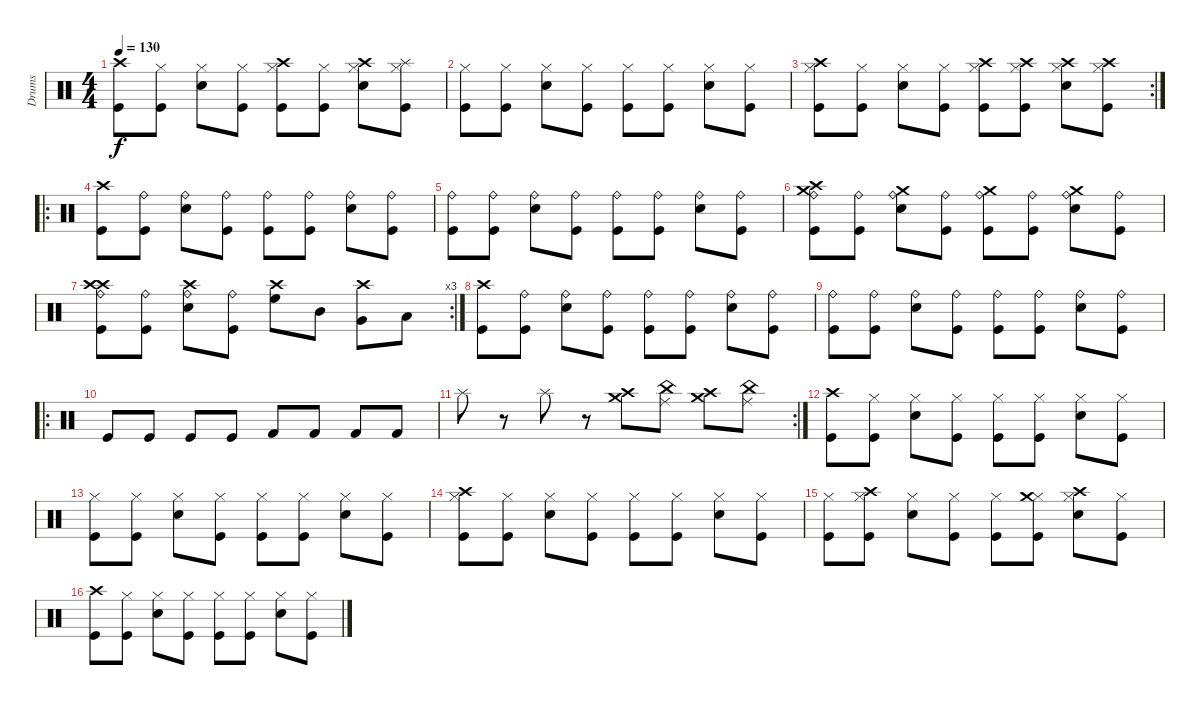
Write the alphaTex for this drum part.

\track ("Drums" "Drums") {instrument percussion}
\staff {score}
\articulation defaults
\ts (4 4)
\tempo 130
\clef neutral
\ks c
("Crash high (hit)" "Kick (hit)").8{dy f} ("Kick (hit)" "Hi-Hat (closed)").8 ("Electric Snare (hit)" "Hi-Hat (closed)").8 ("Kick (hit)" "Hi-Hat (closed)").8 ("Kick (hit)" "Hi-Hat (closed)" "Crash high (hit)").8 ("Kick (hit)" "Hi-Hat (closed)").8 ("Electric Snare (hit)" "Hi-Hat (closed)" "Crash high (hit)").8 ("Kick (hit)" "Hi-Hat (closed)" "Splash (hit)").8 |
("Kick (hit)" "Hi-Hat (closed)").8 ("Kick (hit)" "Hi-Hat (closed)").8 ("Electric Snare (hit)" "Hi-Hat (closed)").8 ("Kick (hit)" "Hi-Hat (closed)").8 ("Kick (hit)" "Hi-Hat (closed)").8 ("Kick (hit)" "Hi-Hat (closed)").8 ("Electric Snare (hit)" "Hi-Hat (closed)").8 ("Kick (hit)" "Hi-Hat (closed)").8 |
\rc 2
("Crash high (hit)" "Kick (hit)" "Hi-Hat (closed)").8 ("Kick (hit)" "Hi-Hat (closed)").8 ("Electric Snare (hit)" "Hi-Hat (closed)").8 ("Kick (hit)" "Hi-Hat (closed)").8 ("Kick (hit)" "Hi-Hat (closed)" "Crash high (hit)").8 ("Kick (hit)" "Hi-Hat (closed)" "Crash high (hit)").8 ("Electric Snare (hit)" "Hi-Hat (closed)" "Crash high (hit)").8 ("Kick (hit)" "Hi-Hat (closed)" "Crash high (hit)").8 |
\ro
("Crash high (hit)" "Kick (hit)").8 ("Kick (hit)" "Ride (bell)").8 ("Electric Snare (hit)" "Ride (bell)").8 ("Kick (hit)" "Ride (bell)").8 ("Kick (hit)" "Ride (bell)").8 ("Kick (hit)" "Ride (bell)").8 ("Electric Snare (hit)" "Ride (bell)").8 ("Kick (hit)" "Ride (bell)").8 |
("Kick (hit)" "Ride (bell)").8 ("Kick (hit)" "Ride (bell)").8 ("Electric Snare (hit)" "Ride (bell)").8 ("Kick (hit)" "Ride (bell)").8 ("Kick (hit)" "Ride (bell)").8 ("Kick (hit)" "Ride (bell)").8 ("Electric Snare (hit)" "Ride (bell)").8 ("Kick (hit)" "Ride (bell)").8 |
("Crash high (hit)" "Kick (hit)" "Ride (bell)" "Crash medium (hit)").8 ("Kick (hit)" "Ride (bell)").8 ("Electric Snare (hit)" "Ride (bell)" "Crash medium (hit)").8 ("Kick (hit)" "Ride (bell)").8 ("Kick (hit)" "Ride (bell)" "Crash medium (hit)").8 ("Kick (hit)" "Ride (bell)").8 ("Electric Snare (hit)" "Ride (bell)" "Crash medium (hit)").8 ("Kick (hit)" "Ride (bell)").8 |
\rc 3
("Crash high (hit)" "Kick (hit)" "Ride (bell)" "Crash high (hit)").8 ("Kick (hit)" "Ride (bell)").8 ("Electric Snare (hit)" "Ride (bell)" "Crash high (hit)").8 ("Kick (hit)" "Ride (bell)").8 ("High Floor Tom (hit)" "Crash high (hit)").8 "Mid Tom (hit)".8 ("Very Low Tom (hit)" "Crash high (hit)").8 "Low Floor Tom (hit)".8 |
("Crash high (hit)" "Kick (hit)").8 ("Kick (hit)" "Ride (bell)").8 ("Electric Snare (hit)" "Ride (bell)").8 ("Kick (hit)" "Ride (bell)").8 ("Kick (hit)" "Ride (bell)").8 ("Kick (hit)" "Ride (bell)").8 ("Electric Snare (hit)" "Ride (bell)").8 ("Kick (hit)" "Ride (bell)").8 |
("Kick (hit)" "Ride (bell)").8 ("Kick (hit)" "Ride (bell)").8 ("Electric Snare (hit)" "Ride (bell)").8 ("Kick (hit)" "Ride (bell)").8 ("Kick (hit)" "Ride (bell)").8 ("Kick (hit)" "Ride (bell)").8 ("Electric Snare (hit)" "Ride (bell)").8 ("Kick (hit)" "Ride (bell)").8 |
\ro "Kick (hit)".8 "Kick (hit)".8 "Kick (hit)".8 "Kick (hit)".8 "Kick (hit) 2".8 "Kick (hit) 2".8 "Kick (hit) 2".8 "Kick (hit) 2".8
|
\rc 2 "Splash (hit)".8
r.8 "Splash (hit)".8 r.8 ("Crash high (hit)" "Crash medium (hit)").8 ("Ride (middle)" "China (hit)").8 ("Crash high (hit)" "Crash medium (hit)").8 ("Ride (middle)" "China (hit)").8 |
("Crash high (hit)" "Kick (hit)").8 ("Kick (hit)" "Hi-Hat (closed)").8 ("Electric Snare (hit)" "Hi-Hat (closed)").8 ("Kick (hit)" "Hi-Hat (closed)").8 ("Kick (hit)" "Hi-Hat (closed)").8 ("Kick (hit)" "Hi-Hat (closed)").8 ("Electric Snare (hit)" "Hi-Hat (closed)").8 ("Kick (hit)" "Hi-Hat (closed)").8 |
("Kick (hit)" "Hi-Hat (closed)").8 ("Kick (hit)" "Hi-Hat (closed)").8 ("Electric Snare (hit)" "Hi-Hat (closed)").8 ("Kick (hit)" "Hi-Hat (closed)").8 ("Kick (hit)" "Hi-Hat (closed)").8 ("Kick (hit)" "Hi-Hat (closed)").8 ("Electric Snare (hit)" "Hi-Hat (closed)").8 ("Kick (hit)" "Hi-Hat (closed)").8 |
("Crash high (hit)" "Kick (hit)" "Hi-Hat (closed)").8 ("Kick (hit)" "Hi-Hat (closed)").8 ("Electric Snare (hit)" "Hi-Hat (closed)").8 ("Kick (hit)" "Hi-Hat (closed)").8 ("Kick (hit)" "Hi-Hat (closed)").8 ("Kick (hit)" "Hi-Hat (closed)").8 ("Electric Snare (hit)" "Hi-Hat (closed)").8 ("Kick (hit)" "Hi-Hat (closed)").8 |
("Kick (hit)" "Hi-Hat (closed)").8 ("Kick (hit)" "Hi-Hat (closed)" "Crash high (hit)").8 ("Electric Snare (hit)" "Hi-Hat (closed)").8 ("Kick (hit)" "Hi-Hat (closed)").8 ("Kick (hit)" "Hi-Hat (closed)").8 ("Kick (hit)" "Hi-Hat (closed)" "Crash medium (hit)").8 ("Crash high (hit)" "Electric Snare (hit)" "Hi-Hat (closed)").8 ("Kick (hit)" "Hi-Hat (closed)").8 |
("Crash high (hit)" "Kick (hit)").8 ("Kick (hit)" "Hi-Hat (closed)").8 ("Electric Snare (hit)" "Hi-Hat (closed)").8 ("Kick (hit)" "Hi-Hat (closed)").8 ("Kick (hit)" "Hi-Hat (closed)").8 ("Kick (hit)" "Hi-Hat (closed)").8 ("Electric Snare (hit)" "Hi-Hat (closed)").8 ("Kick (hit)" "Hi-Hat (closed)").8
